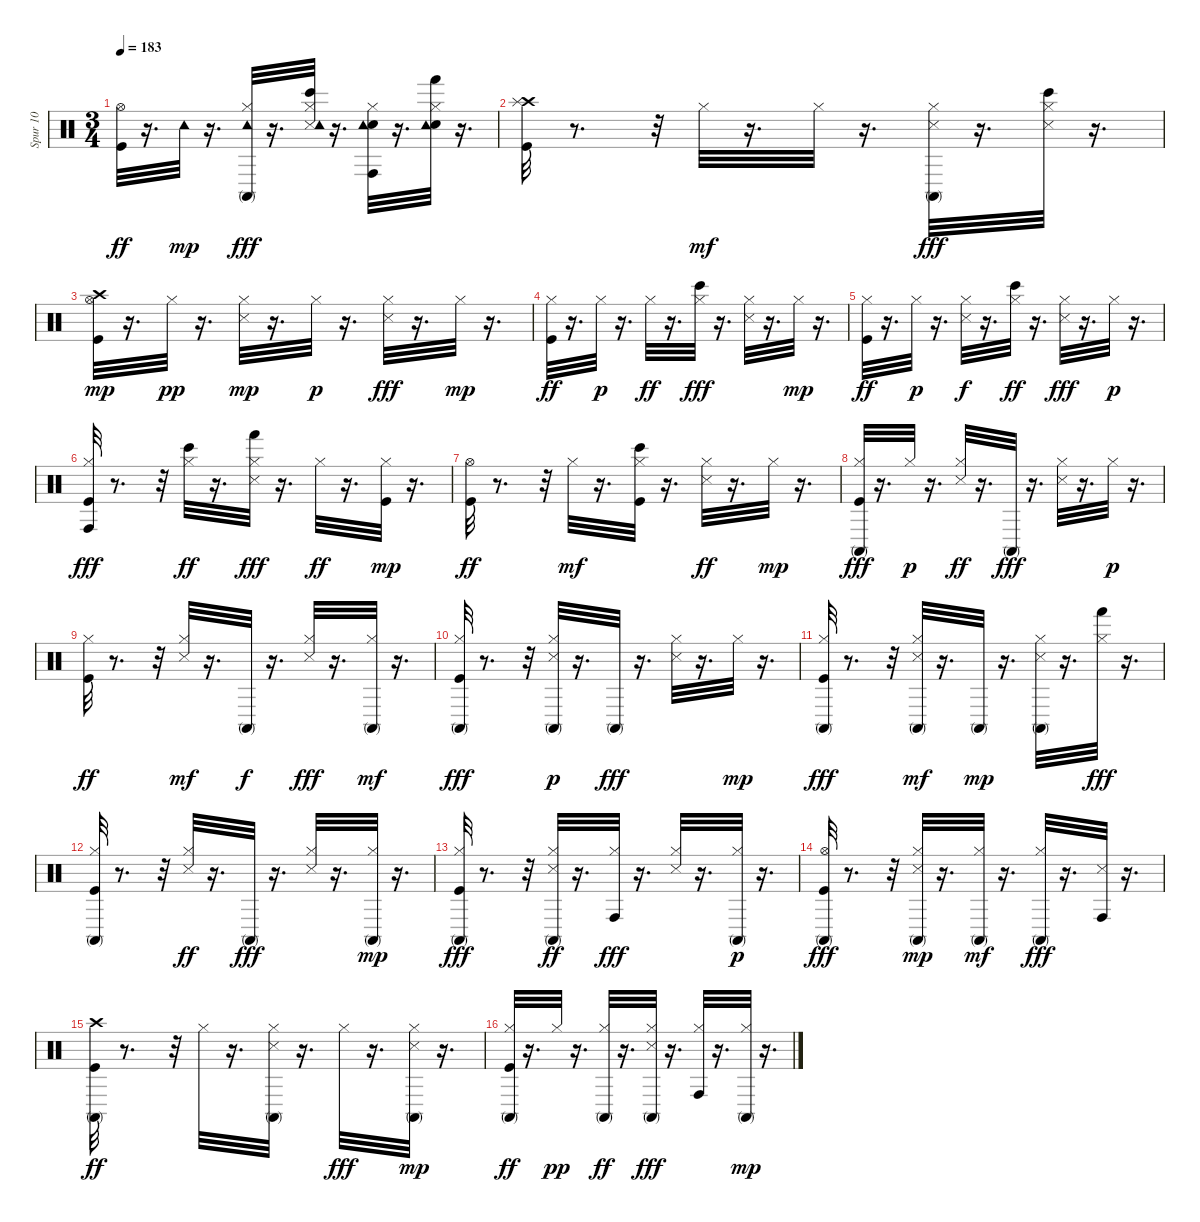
\track ("Spur 10" "Spur 10") {instrument percussion}
\staff {score}
\articulation defaults
\ts (3 4)
\tempo 183
\clef neutral
\ks c
("Kick (hit)" "Hi-Hat (open)").32{dy ff} r.16{d} "Tambourine (hit)".32{dy mp} r.16{d} ("Hi-Hat (closed)" "Tambourine (hit)" "Conga high (mute)").32{dy fff} r.16{d} ("Snare (side stick) 3" "Hi-Hat (closed)" "Tambourine (hit)" "Bongo High (hit)").32 r.16{d} ("Snare (hit) 2" "Hi-Hat (closed)" "Tambourine (hit)" "Conga high (hit)").32 r.16{d} ("Snare (hit) 2" "Hi-Hat (closed)" "Tambourine (hit)" "Hand (hit)").32 r.16{d} |
("Kick (hit)" "Crash high (hit)" "Splash (hit)").32 r.8{d} r.32 "Hi-Hat (closed)".32{dy mf} r.16{d} "Hi-Hat (closed)".32 r.16{d} ("Snare (side stick) 3" "Hi-Hat (closed)" "Conga high (mute)").32{dy fff} r.16{d} ("Snare (side stick) 3" "Hi-Hat (closed)" "Bongo High (hit)").32 r.16{d} |
("Kick (hit)" "Hi-Hat (open)" "Crash high (hit)").32{dy mp} r.16{d} "Hi-Hat (closed)".32{dy pp} r.16{d} ("Snare (side stick) 3" "Hi-Hat (closed)").32{dy mp} r.16{d} "Hi-Hat (closed)".32{dy p} r.16{d} ("Snare (side stick) 3" "Hi-Hat (closed)").32{dy fff} r.16{d} "Hi-Hat (closed)".32{dy mp} r.16{d} |
("Kick (hit)" "Hi-Hat (closed)").32{dy ff} r.16{d} "Hi-Hat (closed)".32{dy p} r.16{d} "Hi-Hat (closed)".32{dy ff} r.16{d} ("Hi-Hat (closed)" "Bongo High (hit)").32{dy fff} r.16{d} ("Snare (side stick) 3" "Hi-Hat (closed)").32 r.16{d} "Hi-Hat (closed)".32{dy mp} r.16{d} |
("Kick (hit)" "Hi-Hat (closed)").32{dy ff} r.16{d} "Hi-Hat (closed)".32{dy p} r.16{d} ("Snare (side stick) 3" "Hi-Hat (closed)").32{dy f} r.16{d} ("Hi-Hat (closed)" "Bongo High (hit)").32{dy ff} r.16{d} ("Snare (side stick) 3" "Hi-Hat (closed)").32{dy fff} r.16{d} "Hi-Hat (closed)".32{dy p} r.16{d} |
("Kick (hit)" "Hi-Hat (closed)" "Conga high (hit)").32{dy fff} r.8{d} r.32 ("Hi-Hat (closed)" "Bongo High (hit)").32{dy ff} r.16{d} ("Snare (side stick) 3" "Hi-Hat (closed)" "Hand (hit)").32{dy fff} r.16{d} "Hi-Hat (closed)".32{dy ff} r.16{d} ("Kick (hit)" "Hi-Hat (closed)").32{dy mp} r.16{d} |
("Kick (hit)" "Hi-Hat (open)").32{dy ff} r.8{d} r.32 "Hi-Hat (closed)".32{dy mf} r.16{d} ("Kick (hit)" "Hi-Hat (closed)" "Bongo High (hit)").32 r.16{d} ("Snare (side stick) 3" "Hi-Hat (closed)").32{dy ff} r.16{d} "Hi-Hat (closed)".32{dy mp} r.16{d} |
("Kick (hit)" "Hi-Hat (closed)" "Conga high (mute)").32{dy fff} r.16{d} "Hi-Hat (closed)".32{dy p} r.16{d} ("Snare (side stick) 3" "Hi-Hat (closed)").32{dy ff} r.16{d} "Conga high (mute)".32{dy fff} r.16{d} ("Snare (side stick) 3" "Hi-Hat (closed)").32 r.16{d} "Hi-Hat (closed)".32{dy p} r.16{d} |
("Kick (hit)" "Hi-Hat (closed)").32{dy ff} r.8{d} r.32 ("Snare (side stick) 3" "Hi-Hat (closed)").32{dy mf} r.16{d} "Conga high (mute)".32{dy f} r.16{d} ("Snare (side stick) 3" "Hi-Hat (closed)").32{dy fff} r.16{d} ("Hi-Hat (closed)" "Conga high (mute)").32{dy mf} r.16{d} |
("Kick (hit)" "Hi-Hat (closed)" "Conga high (mute)").32{dy fff} r.8{d} r.32 ("Snare (side stick) 3" "Hi-Hat (closed)" "Conga high (mute)").32{dy p} r.16{d} "Conga high (mute)".32{dy fff} r.16{d} ("Snare (side stick) 3" "Hi-Hat (closed)").32 r.16{d} "Hi-Hat (closed)".32{dy mp} r.16{d} |
("Kick (hit)" "Hi-Hat (closed)" "Conga high (mute)").32{dy fff} r.8{d} r.32 ("Snare (side stick) 3" "Hi-Hat (closed)" "Conga high (mute)").32{dy mf} r.16{d} "Conga high (mute)".32{dy mp} r.16{d} ("Snare (side stick) 3" "Hi-Hat (closed)" "Conga high (mute)").32 r.16{d} ("Hi-Hat (closed)" "Hand (hit)").32{dy fff} r.16{d} |
("Kick (hit)" "Hi-Hat (closed)" "Conga high (mute)").32 r.8{d} r.32 ("Snare (side stick) 3" "Hi-Hat (closed)").32{dy ff} r.16{d} "Conga high (mute)".32{dy fff} r.16{d} ("Snare (side stick) 3" "Hi-Hat (closed)").32 r.16{d} ("Hi-Hat (closed)" "Conga high (mute)").32{dy mp} r.16{d} |
("Kick (hit)" "Hi-Hat (closed)" "Conga high (mute)").32{dy fff} r.8{d} r.32 ("Snare (side stick) 3" "Hi-Hat (closed)" "Conga high (mute)").32{dy ff} r.16{d} ("Hi-Hat (closed)" "Conga high (hit)").32{dy fff} r.16{d} ("Snare (side stick) 3" "Hi-Hat (closed)").32 r.16{d} ("Hi-Hat (closed)" "Conga high (mute)").32{dy p} r.16{d} |
("Kick (hit)" "Hi-Hat (open)" "Conga high (mute)").32{dy fff} r.8{d} r.32 ("Snare (side stick) 3" "Hi-Hat (closed)" "Conga high (mute)").32{dy mp} r.16{d} ("Hi-Hat (closed)" "Conga high (mute)").32{dy mf} r.16{d} ("Hi-Hat (closed)" "Conga high (mute)").32{dy fff} r.16{d} ("Snare (side stick) 3" "Conga high (hit)").32 r.16{d} |
("Kick (hit)" "Crash high (hit)" "Conga high (mute)").32{dy ff} r.8{d} r.32 "Hi-Hat (closed)".32 r.16{d} ("Snare (side stick) 3" "Hi-Hat (closed)" "Conga high (mute)").32 r.16{d} "Hi-Hat (closed)".32{dy fff} r.16{d} ("Snare (side stick) 3" "Hi-Hat (closed)" "Conga high (mute)").32{dy mp} r.16{d} |
("Kick (hit)" "Hi-Hat (closed)" "Conga high (mute)").32{dy ff} r.16{d} "Hi-Hat (closed)".32{dy pp} r.16{d} ("Hi-Hat (closed)" "Conga high (mute)").32{dy ff} r.16{d} ("Snare (side stick) 3" "Hi-Hat (closed)" "Conga high (mute)").32{dy fff} r.16{d} ("Hi-Hat (closed)" "Conga high (hit)").32 r.16{d} ("Hi-Hat (closed)" "Conga high (mute)").32{dy mp} r.16{d}
